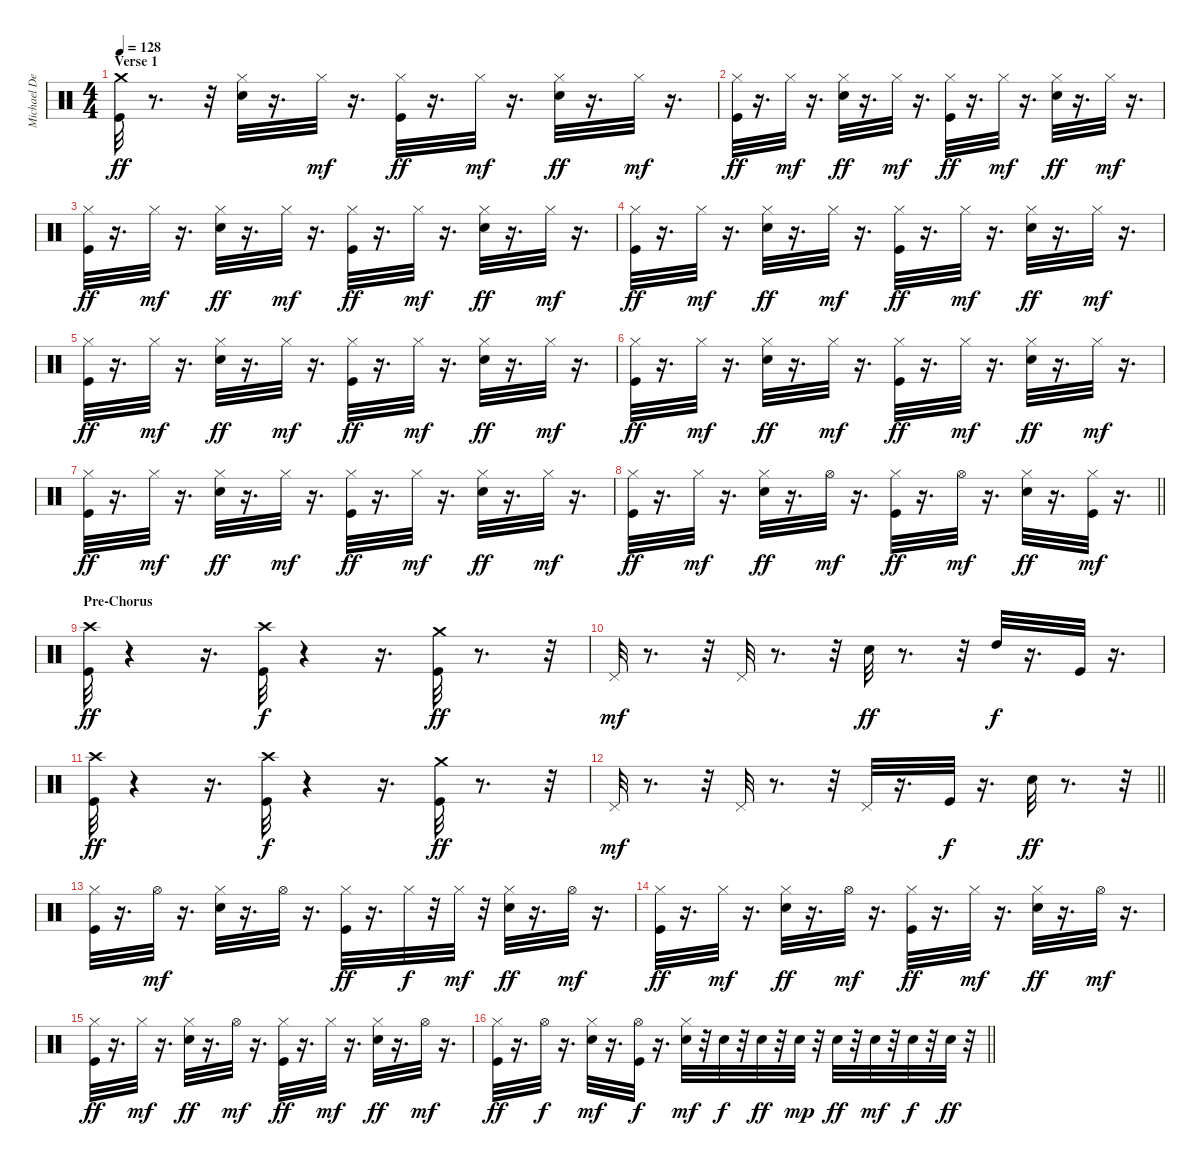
\track ("Michael DeRosier" "Michael De") {instrument percussion}
\staff {score}
\articulation defaults
\ts (4 4)
\section ("" "Verse 1")
\tempo 128
\clef neutral
\ks c
("Kick (hit)" "Crash medium (hit)").32{dy ff} r.8{d} r.32 ("Snare (hit) 2" "Hi-Hat (closed)").32 r.16{d} "Hi-Hat (closed)".32{dy mf} r.16{d} ("Hi-Hat (closed)" "Kick (hit)").32{dy ff} r.16{d} "Hi-Hat (closed)".32{dy mf} r.16{d} ("Snare (hit) 2" "Hi-Hat (closed)").32{dy ff} r.16{d} "Hi-Hat (closed)".32{dy mf} r.16{d} |
("Hi-Hat (closed)" "Kick (hit)").32{dy ff} r.16{d} "Hi-Hat (closed)".32{dy mf} r.16{d} ("Snare (hit) 2" "Hi-Hat (closed)").32{dy ff} r.16{d} "Hi-Hat (closed)".32{dy mf} r.16{d} ("Hi-Hat (closed)" "Kick (hit)").32{dy ff} r.16{d} "Hi-Hat (closed)".32{dy mf} r.16{d} ("Snare (hit) 2" "Hi-Hat (closed)").32{dy ff} r.16{d} "Hi-Hat (closed)".32{dy mf} r.16{d} |
("Hi-Hat (closed)" "Kick (hit)").32{dy ff} r.16{d} "Hi-Hat (closed)".32{dy mf} r.16{d} ("Snare (hit) 2" "Hi-Hat (closed)").32{dy ff} r.16{d} "Hi-Hat (closed)".32{dy mf} r.16{d} ("Hi-Hat (closed)" "Kick (hit)").32{dy ff} r.16{d} "Hi-Hat (closed)".32{dy mf} r.16{d} ("Snare (hit) 2" "Hi-Hat (closed)").32{dy ff} r.16{d} "Hi-Hat (closed)".32{dy mf} r.16{d} |
("Hi-Hat (closed)" "Kick (hit)").32{dy ff} r.16{d} "Hi-Hat (closed)".32{dy mf} r.16{d} ("Snare (hit) 2" "Hi-Hat (closed)").32{dy ff} r.16{d} "Hi-Hat (closed)".32{dy mf} r.16{d} ("Hi-Hat (closed)" "Kick (hit)").32{dy ff} r.16{d} "Hi-Hat (closed)".32{dy mf} r.16{d} ("Snare (hit) 2" "Hi-Hat (closed)").32{dy ff} r.16{d} "Hi-Hat (closed)".32{dy mf} r.16{d} |
("Hi-Hat (closed)" "Kick (hit)").32{dy ff} r.16{d} "Hi-Hat (closed)".32{dy mf} r.16{d} ("Snare (hit) 2" "Hi-Hat (closed)").32{dy ff} r.16{d} "Hi-Hat (closed)".32{dy mf} r.16{d} ("Hi-Hat (closed)" "Kick (hit)").32{dy ff} r.16{d} "Hi-Hat (closed)".32{dy mf} r.16{d} ("Snare (hit) 2" "Hi-Hat (closed)").32{dy ff} r.16{d} "Hi-Hat (closed)".32{dy mf} r.16{d} |
("Hi-Hat (closed)" "Kick (hit)").32{dy ff} r.16{d} "Hi-Hat (closed)".32{dy mf} r.16{d} ("Snare (hit) 2" "Hi-Hat (closed)").32{dy ff} r.16{d} "Hi-Hat (closed)".32{dy mf} r.16{d} ("Hi-Hat (closed)" "Kick (hit)").32{dy ff} r.16{d} "Hi-Hat (closed)".32{dy mf} r.16{d} ("Snare (hit) 2" "Hi-Hat (closed)").32{dy ff} r.16{d} "Hi-Hat (closed)".32{dy mf} r.16{d} |
("Kick (hit)" "Hi-Hat (closed)").32{dy ff} r.16{d} "Hi-Hat (closed)".32{dy mf} r.16{d} ("Snare (hit) 2" "Hi-Hat (closed)").32{dy ff} r.16{d} "Hi-Hat (closed)".32{dy mf} r.16{d} ("Hi-Hat (closed)" "Kick (hit)").32{dy ff} r.16{d} "Hi-Hat (closed)".32{dy mf} r.16{d} ("Snare (hit) 2" "Hi-Hat (closed)").32{dy ff} r.16{d} "Hi-Hat (closed)".32{dy mf} r.16{d} |
\barLineRight lightlight
("Hi-Hat (closed)" "Kick (hit)").32{dy ff} r.16{d} "Hi-Hat (closed)".32{dy mf} r.16{d} ("Snare (hit) 2" "Hi-Hat (closed)").32{dy ff} r.16{d} "Hi-Hat (open)".32{dy mf} r.16{d} ("Hi-Hat (closed)" "Kick (hit)").32{dy ff} r.16{d} "Hi-Hat (open)".32{dy mf} r.16{d} ("Snare (hit) 2" "Hi-Hat (closed)").32{dy ff} r.16{d} ("Hi-Hat (closed)" "Kick (hit)").32{dy mf} r.16{d} |
\section ("" "Pre-Chorus")
("Kick (hit)" "Crash high (hit)").32{dy ff} r.4 r.16{d} ("Kick (hit)" "Crash high (hit)").32{dy f} r.4 r.16{d} ("Kick (hit)" "Crash medium (hit)").32{dy ff} r.8{d} r.32 |
"Pedal Hi-Hat (hit)".32{dy mf} r.8{d} r.32 "Pedal Hi-Hat (hit)".32 r.8{d} r.32 "Snare (hit) 2".32{dy ff} r.8{d} r.32 "High Tom (hit)".32{dy f} r.16{d} "Kick (hit)".32 r.16{d} |
("Kick (hit)" "Crash high (hit)").32{dy ff} r.4 r.16{d} ("Kick (hit)" "Crash high (hit)").32{dy f} r.4 r.16{d} ("Kick (hit)" "Crash medium (hit)").32{dy ff} r.8{d} r.32 |
\barLineRight lightlight "Pedal Hi-Hat (hit)".32{dy mf}
r.8{d} r.32 "Pedal Hi-Hat (hit)".32 r.8{d} r.32 "Pedal Hi-Hat (hit)".32 r.16{d} "Kick (hit)".32{dy f} r.16{d} "Snare (hit) 2".32{dy ff} r.8{d} r.32 |
("Hi-Hat (closed)" "Kick (hit)").32 r.16{d} "Hi-Hat (open)".32{dy mf} r.16{d} ("Snare (hit) 2" "Hi-Hat (closed)").32 r.16{d} "Hi-Hat (open)".32 r.16{d} ("Hi-Hat (closed)" "Kick (hit)").32{dy ff} r.16{d} "Hi-Hat (closed)".32{dy f} r.32 "Hi-Hat (closed)".32{dy mf} r.32 ("Snare (hit) 2" "Hi-Hat (closed)").32{dy ff} r.16{d} "Hi-Hat (open)".32{dy mf} r.16{d} |
("Hi-Hat (closed)" "Kick (hit)").32{dy ff} r.16{d} "Hi-Hat (closed)".32{dy mf} r.16{d} ("Snare (hit) 2" "Hi-Hat (closed)").32{dy ff} r.16{d} "Hi-Hat (open)".32{dy mf} r.16{d} ("Hi-Hat (closed)" "Kick (hit)").32{dy ff} r.16{d} "Hi-Hat (closed)".32{dy mf} r.16{d} ("Snare (hit) 2" "Hi-Hat (closed)").32{dy ff} r.16{d} "Hi-Hat (open)".32{dy mf} r.16{d} |
("Hi-Hat (closed)" "Kick (hit)").32{dy ff} r.16{d} "Hi-Hat (closed)".32{dy mf} r.16{d} ("Snare (hit) 2" "Hi-Hat (closed)").32{dy ff} r.16{d} "Hi-Hat (open)".32{dy mf} r.16{d} ("Hi-Hat (closed)" "Kick (hit)").32{dy ff} r.16{d} "Hi-Hat (closed)".32{dy mf} r.16{d} ("Snare (hit) 2" "Hi-Hat (closed)").32{dy ff} r.16{d} "Hi-Hat (open)".32{dy mf} r.16{d} |
\barLineRight lightlight
("Hi-Hat (closed)" "Kick (hit)").32{dy ff} r.16{d} "Hi-Hat (open)".32{dy f} r.16{d} ("Snare (hit) 2" "Hi-Hat (closed)").32{dy mf} r.16{d} ("Hi-Hat (open)" "Kick (hit)").32{dy f} r.16{d} ("Snare (hit) 2" "Hi-Hat (closed)").32{dy mf} r.32 "Snare (hit) 2".32{dy f} r.32 "Snare (hit) 2".32{dy ff} r.32 "Snare (hit) 2".32{dy mp} r.32 "Snare (hit) 2".32{dy ff} r.32 "Snare (hit) 2".32{dy mf} r.32 "Snare (hit) 2".32{dy f} r.32 "Snare (hit) 2".32{dy ff} r.32
